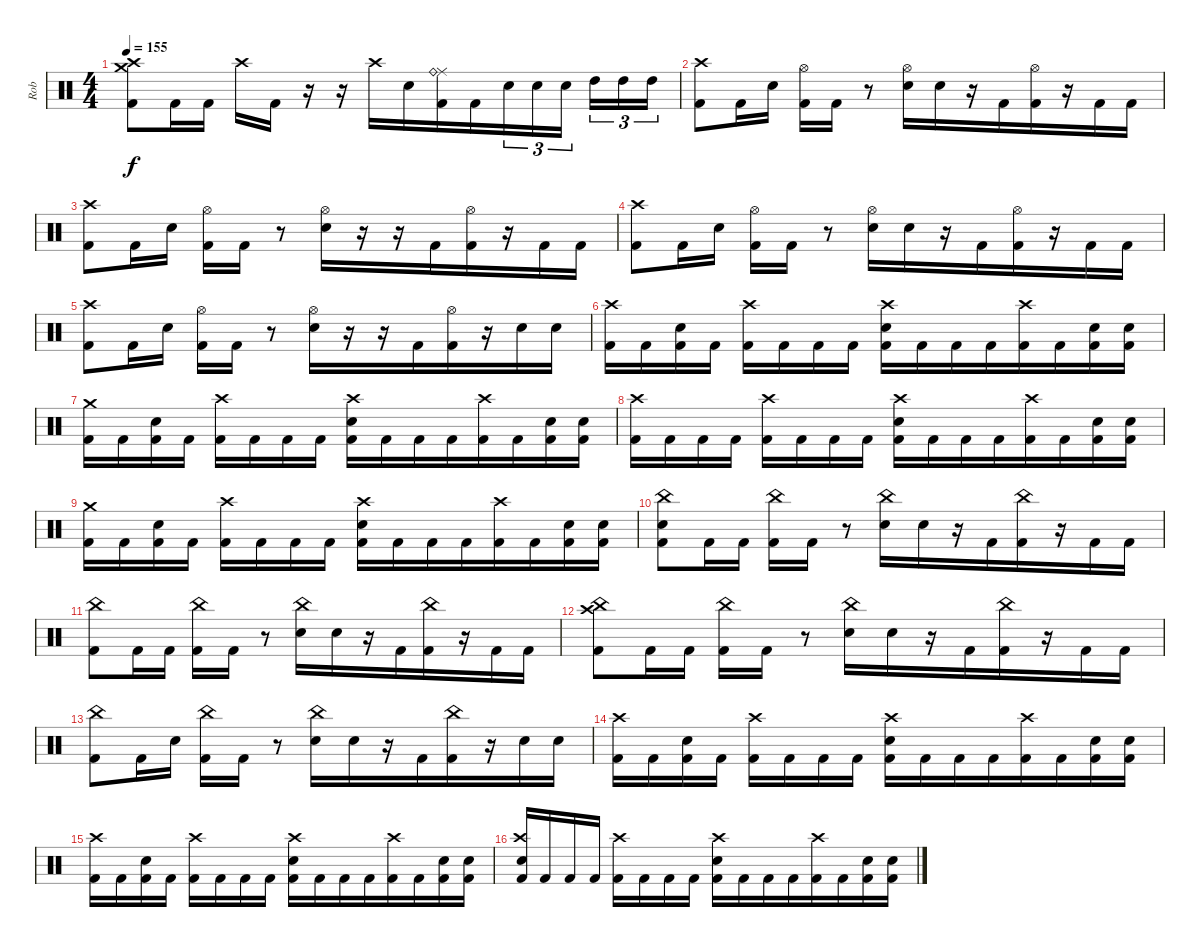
\track ("Rob" "Rob") {instrument percussion}
\staff {score}
\articulation defaults
\ts (4 4)
\tempo 155
\clef neutral
\ks c
("Kick (hit) 2" "Crash medium (hit)" "Crash high (hit)").8{dy f} "Kick (hit) 2".16 "Kick (hit) 2".16 "Crash high (hit)".16 "Kick (hit) 2".16 r.16 r.16 "Crash high (hit)".16 "Electric Snare (hit)".16 ("Ride (middle)" "Ride (bell)" "Kick (hit) 2").16{beam merge} "Kick (hit) 2".16{beam merge} "Electric Snare (hit)".16{tu (3 2) beam merge} "Electric Snare (hit)".16{tu (3 2)} "Electric Snare (hit)".16{tu (3 2) beam splitsecondary} "High Tom (hit)".16{tu (3 2)} "High Tom (hit)".16{tu (3 2) beam merge} "High Tom (hit)".16{tu (3 2)} |
("Kick (hit) 2" "Crash high (hit)").8 "Kick (hit) 2".16 "Electric Snare (hit)".16 ("Kick (hit) 2" "Hi-Hat (open)").16{beam merge} "Kick (hit) 2".16 r.8{beam merge} ("Electric Snare (hit)" "Hi-Hat (open)").16 "Electric Snare (hit)".16{beam merge} r.16 "Kick (hit) 2".16{beam merge} ("Kick (hit) 2" "Hi-Hat (open)").16{beam merge} r.16{beam merge} "Kick (hit) 2".16 "Kick (hit) 2".16 |
("Kick (hit) 2" "Crash high (hit)").8 "Kick (hit) 2".16 "Electric Snare (hit)".16 ("Kick (hit) 2" "Hi-Hat (open)").16{beam merge} "Kick (hit) 2".16 r.8{beam merge} ("Electric Snare (hit)" "Hi-Hat (open)").16 r.16{beam merge} r.16 "Kick (hit) 2".16{beam merge} ("Kick (hit) 2" "Hi-Hat (open)").16{beam merge} r.16{beam merge} "Kick (hit) 2".16 "Kick (hit) 2".16 |
("Kick (hit) 2" "Crash high (hit)").8 "Kick (hit) 2".16 "Electric Snare (hit)".16 ("Kick (hit) 2" "Hi-Hat (open)").16{beam merge} "Kick (hit) 2".16 r.8{beam merge} ("Electric Snare (hit)" "Hi-Hat (open)").16 "Electric Snare (hit)".16{beam merge} r.16 "Kick (hit) 2".16{beam merge} ("Kick (hit) 2" "Hi-Hat (open)").16{beam merge} r.16{beam merge} "Kick (hit) 2".16 "Kick (hit) 2".16 |
("Kick (hit) 2" "Crash high (hit)").8 "Kick (hit) 2".16 "Electric Snare (hit)".16 ("Kick (hit) 2" "Hi-Hat (open)").16{beam merge} "Kick (hit) 2".16 r.8{beam merge} ("Electric Snare (hit)" "Hi-Hat (open)").16 r.16{beam merge} r.16 "Kick (hit) 2".16{beam merge} ("Kick (hit) 2" "Hi-Hat (open)").16{beam merge} r.16{beam merge} "Electric Snare (hit)".16 "Electric Snare (hit)".16 |
("Kick (hit) 2" "Crash high (hit)").16{beam merge} "Kick (hit) 2".16 ("Kick (hit) 2" "Electric Snare (hit)").16 "Kick (hit) 2".16 ("Kick (hit) 2" "Crash high (hit)").16 "Kick (hit) 2".16 "Kick (hit) 2".16 "Kick (hit) 2".16 ("Kick (hit) 2" "Crash high (hit)" "Electric Snare (hit)").16 "Kick (hit) 2".16 "Kick (hit) 2".16 "Kick (hit) 2".16{beam merge} ("Kick (hit) 2" "Crash high (hit)").16 "Kick (hit) 2".16 ("Kick (hit) 2" "Electric Snare (hit)").16{beam merge} ("Kick (hit) 2" "Electric Snare (hit)").16 |
("Kick (hit) 2" "Crash medium (hit)").16{beam merge} "Kick (hit) 2".16 ("Kick (hit) 2" "Electric Snare (hit)").16 "Kick (hit) 2".16 ("Kick (hit) 2" "Crash high (hit)").16 "Kick (hit) 2".16 "Kick (hit) 2".16 "Kick (hit) 2".16 ("Kick (hit) 2" "Crash high (hit)" "Electric Snare (hit)").16 "Kick (hit) 2".16 "Kick (hit) 2".16 "Kick (hit) 2".16{beam merge} ("Kick (hit) 2" "Crash high (hit)").16 "Kick (hit) 2".16 ("Kick (hit) 2" "Electric Snare (hit)").16{beam merge} ("Kick (hit) 2" "Electric Snare (hit)").16 |
("Kick (hit) 2" "Crash high (hit)").16{beam merge} "Kick (hit) 2".16 "Kick (hit) 2".16 "Kick (hit) 2".16 ("Kick (hit) 2" "Crash high (hit)").16 "Kick (hit) 2".16 "Kick (hit) 2".16 "Kick (hit) 2".16 ("Kick (hit) 2" "Crash high (hit)" "Electric Snare (hit)").16 "Kick (hit) 2".16 "Kick (hit) 2".16 "Kick (hit) 2".16{beam merge} ("Kick (hit) 2" "Crash high (hit)").16 "Kick (hit) 2".16 ("Kick (hit) 2" "Electric Snare (hit)").16{beam merge} ("Kick (hit) 2" "Electric Snare (hit)").16 |
("Kick (hit) 2" "Crash medium (hit)").16{beam merge} "Kick (hit) 2".16 ("Kick (hit) 2" "Electric Snare (hit)").16 "Kick (hit) 2".16 ("Kick (hit) 2" "Crash high (hit)").16 "Kick (hit) 2".16 "Kick (hit) 2".16 "Kick (hit) 2".16 ("Kick (hit) 2" "Crash high (hit)" "Electric Snare (hit)").16 "Kick (hit) 2".16 "Kick (hit) 2".16 "Kick (hit) 2".16{beam merge} ("Kick (hit) 2" "Crash high (hit)").16 "Kick (hit) 2".16 ("Kick (hit) 2" "Electric Snare (hit)").16{beam merge} ("Kick (hit) 2" "Electric Snare (hit)").16 |
("Kick (hit) 2" "Electric Snare (hit)" "China (hit)").8 "Kick (hit) 2".16 "Kick (hit) 2".16 ("Kick (hit) 2" "China (hit)").16{beam merge} "Kick (hit) 2".16 r.8{beam merge} ("Electric Snare (hit)" "China (hit)").16 "Electric Snare (hit)".16{beam merge} r.16 "Kick (hit) 2".16{beam merge} ("Kick (hit) 2" "China (hit)").16{beam merge} r.16{beam merge} "Kick (hit) 2".16 "Kick (hit) 2".16 |
("Kick (hit) 2" "China (hit)").8 "Kick (hit) 2".16 "Kick (hit) 2".16 ("Kick (hit) 2" "China (hit)").16{beam merge} "Kick (hit) 2".16 r.8{beam merge} ("Electric Snare (hit)" "China (hit)").16 "Electric Snare (hit)".16{beam merge} r.16 "Kick (hit) 2".16{beam merge} ("Kick (hit) 2" "China (hit)").16{beam merge} r.16{beam merge} "Kick (hit) 2".16 "Kick (hit) 2".16 |
("Kick (hit) 2" "China (hit)" "Crash high (hit)").8 "Kick (hit) 2".16 "Kick (hit) 2".16 ("China (hit)" "Kick (hit) 2").16{beam merge} "Kick (hit) 2".16 r.8{beam merge} ("Electric Snare (hit)" "China (hit)").16 "Electric Snare (hit)".16{beam merge} r.16 "Kick (hit) 2".16{beam merge} ("Kick (hit) 2" "China (hit)").16{beam merge} r.16{beam merge} "Kick (hit) 2".16 "Kick (hit) 2".16 |
("Kick (hit) 2" "China (hit)").8 "Kick (hit) 2".16 "Electric Snare (hit)".16 ("Kick (hit) 2" "China (hit)").16{beam merge} "Kick (hit) 2".16 r.8{beam merge} ("Electric Snare (hit)" "China (hit)").16 "Electric Snare (hit)".16{beam merge} r.16 "Kick (hit) 2".16{beam merge} ("Kick (hit) 2" "China (hit)").16{beam merge} r.16{beam merge} "Electric Snare (hit)".16 "Electric Snare (hit)".16 |
("Kick (hit) 2" "Crash high (hit)").16{volume 0 beam merge} "Kick (hit) 2".16 ("Kick (hit) 2" "Electric Snare (hit)").16 "Kick (hit) 2".16 ("Kick (hit) 2" "Crash high (hit)").16 "Kick (hit) 2".16 "Kick (hit) 2".16 "Kick (hit) 2".16 ("Kick (hit) 2" "Crash high (hit)" "Electric Snare (hit)").16 "Kick (hit) 2".16 "Kick (hit) 2".16 "Kick (hit) 2".16{beam merge} ("Kick (hit) 2" "Crash high (hit)").16 "Kick (hit) 2".16 ("Kick (hit) 2" "Electric Snare (hit)").16{beam merge} ("Kick (hit) 2" "Electric Snare (hit)").16 |
("Kick (hit) 2" "Crash high (hit)").16{beam merge} "Kick (hit) 2".16 ("Kick (hit) 2" "Electric Snare (hit)").16 "Kick (hit) 2".16 ("Kick (hit) 2" "Crash high (hit)").16 "Kick (hit) 2".16 "Kick (hit) 2".16 "Kick (hit) 2".16 ("Kick (hit) 2" "Crash high (hit)" "Electric Snare (hit)").16 "Kick (hit) 2".16 "Kick (hit) 2".16 "Kick (hit) 2".16{beam merge} ("Kick (hit) 2" "Crash high (hit)").16 "Kick (hit) 2".16 ("Kick (hit) 2" "Electric Snare (hit)").16{beam merge} ("Kick (hit) 2" "Electric Snare (hit)").16 |
("Kick (hit) 2" "Electric Snare (hit)" "Crash high (hit)").16{beam merge} "Kick (hit) 2".16 "Kick (hit) 2".16 "Kick (hit) 2".16 ("Kick (hit) 2" "Crash high (hit)").16 "Kick (hit) 2".16 "Kick (hit) 2".16 "Kick (hit) 2".16 ("Kick (hit) 2" "Crash high (hit)" "Electric Snare (hit)").16 "Kick (hit) 2".16 "Kick (hit) 2".16 "Kick (hit) 2".16{beam merge} ("Kick (hit) 2" "Crash high (hit)").16 "Kick (hit) 2".16 ("Kick (hit) 2" "Electric Snare (hit)").16{beam merge} ("Kick (hit) 2" "Electric Snare (hit)").16
